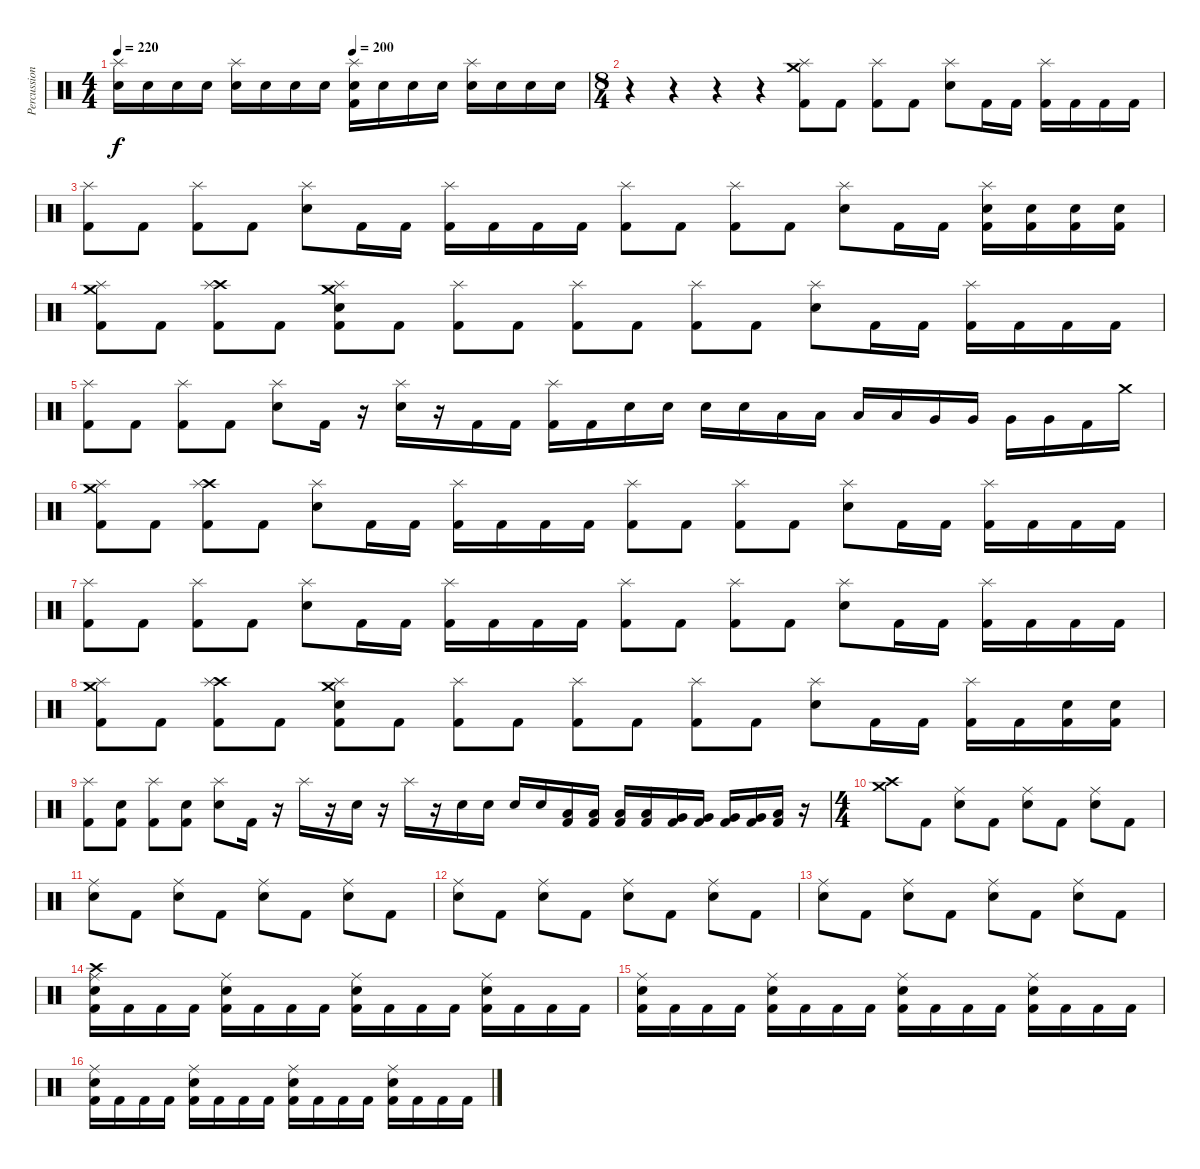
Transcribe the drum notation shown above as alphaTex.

\track ("Percussion" "Percussion") {instrument percussion}
\staff {score}
\articulation defaults
\ts (4 4)
\tempo 220
\tempo (200 0.5)
\clef neutral
\ks c
("Splash (hit)" "Electric Snare (hit)").16{dy f} "Electric Snare (hit)".16 "Electric Snare (hit)".16 "Electric Snare (hit)".16 ("Splash (hit)" "Electric Snare (hit)").16 "Electric Snare (hit)".16 "Electric Snare (hit)".16 "Electric Snare (hit)".16 ("Splash (hit)" "Electric Snare (hit)" "Kick (hit) 2").16 "Electric Snare (hit)".16 "Electric Snare (hit)".16 "Electric Snare (hit)".16 ("Splash (hit)" "Electric Snare (hit)").16 "Electric Snare (hit)".16 "Electric Snare (hit)".16 "Electric Snare (hit)".16 |
\ts (8 4)
r.4 r.4 r.4 r.4 ("Crash medium (hit)" "Splash (hit)" "Kick (hit) 2").8 "Kick (hit) 2".8 ("Splash (hit)" "Kick (hit) 2").8 "Kick (hit) 2".8 ("Splash (hit)" "Electric Snare (hit)").8 "Kick (hit) 2".16 "Kick (hit) 2".16 ("Splash (hit)" "Kick (hit) 2").16 "Kick (hit) 2".16 "Kick (hit) 2".16 "Kick (hit) 2".16 |
("Splash (hit)" "Kick (hit) 2").8 "Kick (hit) 2".8 ("Splash (hit)" "Kick (hit) 2").8 "Kick (hit) 2".8 ("Splash (hit)" "Electric Snare (hit)").8 "Kick (hit) 2".16 "Kick (hit) 2".16 ("Splash (hit)" "Kick (hit) 2").16 "Kick (hit) 2".16 "Kick (hit) 2".16 "Kick (hit) 2".16 ("Splash (hit)" "Kick (hit) 2").8 "Kick (hit) 2".8 ("Splash (hit)" "Kick (hit) 2").8 "Kick (hit) 2".8 ("Splash (hit)" "Electric Snare (hit)").8 "Kick (hit) 2".16 "Kick (hit) 2".16 ("Splash (hit)" "Electric Snare (hit)" "Kick (hit) 2").16 ("Electric Snare (hit)" "Kick (hit) 2").16 ("Electric Snare (hit)" "Kick (hit) 2").16 ("Electric Snare (hit)" "Kick (hit) 2").16 |
("Crash medium (hit)" "Splash (hit)" "Kick (hit) 2").8 "Kick (hit) 2".8 ("Crash high (hit)" "Splash (hit)" "Kick (hit) 2").8 "Kick (hit) 2".8 ("Crash medium (hit)" "Splash (hit)" "Electric Snare (hit)" "Kick (hit) 2").8 "Kick (hit) 2".8 ("Splash (hit)" "Kick (hit) 2").8 "Kick (hit) 2".8 ("Splash (hit)" "Kick (hit) 2").8 "Kick (hit) 2".8 ("Splash (hit)" "Kick (hit) 2").8 "Kick (hit) 2".8 ("Splash (hit)" "Electric Snare (hit)").8 "Kick (hit) 2".16 "Kick (hit) 2".16 ("Splash (hit)" "Kick (hit) 2").16 "Kick (hit) 2".16 "Kick (hit) 2".16 "Kick (hit) 2".16 |
("Splash (hit)" "Kick (hit) 2").8 "Kick (hit) 2".8 ("Splash (hit)" "Kick (hit) 2").8 "Kick (hit) 2".8 ("Splash (hit)" "Electric Snare (hit)").8 "Kick (hit) 2".16 r.16 ("Splash (hit)" "Electric Snare (hit)").16 r.16 "Kick (hit) 2".16 "Kick (hit) 2".16 ("Splash (hit)" "Kick (hit) 2").16 "Kick (hit) 2".16 "Electric Snare (hit)".16 "Electric Snare (hit)".16 "Electric Snare (hit)".16 "Electric Snare (hit)".16 "Low Tom (hit)".16 "Low Tom (hit)".16 "Low Tom (hit)".16 "Low Tom (hit)".16 "Very Low Tom (hit)".16 "Very Low Tom (hit)".16 "Very Low Tom (hit)".16 "Very Low Tom (hit)".16 "Kick (hit) 2".16 "Crash medium (hit)".16 |
("Crash medium (hit)" "Splash (hit)" "Kick (hit) 2").8 "Kick (hit) 2".8 ("Crash high (hit)" "Splash (hit)" "Kick (hit) 2").8 "Kick (hit) 2".8 ("Splash (hit)" "Electric Snare (hit)").8 "Kick (hit) 2".16 "Kick (hit) 2".16 ("Splash (hit)" "Kick (hit) 2").16 "Kick (hit) 2".16 "Kick (hit) 2".16 "Kick (hit) 2".16 ("Splash (hit)" "Kick (hit) 2").8 "Kick (hit) 2".8 ("Splash (hit)" "Kick (hit) 2").8 "Kick (hit) 2".8 ("Splash (hit)" "Electric Snare (hit)").8 "Kick (hit) 2".16 "Kick (hit) 2".16 ("Splash (hit)" "Kick (hit) 2").16 "Kick (hit) 2".16 "Kick (hit) 2".16 "Kick (hit) 2".16 |
("Splash (hit)" "Kick (hit) 2").8 "Kick (hit) 2".8 ("Splash (hit)" "Kick (hit) 2").8 "Kick (hit) 2".8 ("Splash (hit)" "Electric Snare (hit)").8 "Kick (hit) 2".16 "Kick (hit) 2".16 ("Splash (hit)" "Kick (hit) 2").16 "Kick (hit) 2".16 "Kick (hit) 2".16 "Kick (hit) 2".16 ("Splash (hit)" "Kick (hit) 2").8 "Kick (hit) 2".8 ("Splash (hit)" "Kick (hit) 2").8 "Kick (hit) 2".8 ("Splash (hit)" "Electric Snare (hit)").8 "Kick (hit) 2".16 "Kick (hit) 2".16 ("Splash (hit)" "Kick (hit) 2").16 "Kick (hit) 2".16 "Kick (hit) 2".16 "Kick (hit) 2".16 |
("Crash medium (hit)" "Splash (hit)" "Kick (hit) 2").8 "Kick (hit) 2".8 ("Crash high (hit)" "Splash (hit)" "Kick (hit) 2").8 "Kick (hit) 2".8 ("Crash medium (hit)" "Splash (hit)" "Electric Snare (hit)" "Kick (hit) 2").8 "Kick (hit) 2".8 ("Splash (hit)" "Kick (hit) 2").8 "Kick (hit) 2".8 ("Splash (hit)" "Kick (hit) 2").8 "Kick (hit) 2".8 ("Splash (hit)" "Kick (hit) 2").8 "Kick (hit) 2".8 ("Splash (hit)" "Electric Snare (hit)").8 "Kick (hit) 2".16 "Kick (hit) 2".16 ("Splash (hit)" "Kick (hit) 2").16 "Kick (hit) 2".16 ("Electric Snare (hit)" "Kick (hit) 2").16 ("Electric Snare (hit)" "Kick (hit) 2").16 |
("Splash (hit)" "Kick (hit) 2").8 ("Electric Snare (hit)" "Kick (hit) 2").8 ("Splash (hit)" "Kick (hit) 2").8 ("Electric Snare (hit)" "Kick (hit) 2").8 ("Splash (hit)" "Electric Snare (hit)").8 "Kick (hit) 2".16 r.16 "Splash (hit)".16 r.16 "Electric Snare (hit)".16 r.16 "Splash (hit)".16 r.16 "Electric Snare (hit)".16 "Electric Snare (hit)".16 "Electric Snare (hit)".16 "Electric Snare (hit)".16 ("Low Tom (hit)" "Kick (hit) 2").16 ("Low Tom (hit)" "Kick (hit) 2").16 ("Low Tom (hit)" "Kick (hit) 2").16 ("Low Tom (hit)" "Kick (hit) 2").16 ("Very Low Tom (hit)" "Kick (hit) 2").16 ("Very Low Tom (hit)" "Kick (hit) 2").16 ("Very Low Tom (hit)" "Kick (hit) 2").16 ("Very Low Tom (hit)" "Kick (hit) 2").16 ("Low Floor Tom (hit)" "Kick (hit) 2").16 r.16 |
\ts (4 4)
("Crash high (hit)" "Crash medium (hit)").8 "Kick (hit) 2".8 ("Ride (middle)" "Electric Snare (hit)").8 "Kick (hit) 2".8 ("Ride (middle)" "Electric Snare (hit)").8 "Kick (hit) 2".8 ("Ride (middle)" "Electric Snare (hit)").8 "Kick (hit) 2".8 |
("Ride (middle)" "Electric Snare (hit)").8 "Kick (hit) 2".8 ("Ride (middle)" "Electric Snare (hit)").8 "Kick (hit) 2".8 ("Ride (middle)" "Electric Snare (hit)").8 "Kick (hit) 2".8 ("Ride (middle)" "Electric Snare (hit)").8 "Kick (hit) 2".8 |
("Ride (middle)" "Electric Snare (hit)").8 "Kick (hit) 2".8 ("Ride (middle)" "Electric Snare (hit)").8 "Kick (hit) 2".8 ("Ride (middle)" "Electric Snare (hit)").8 "Kick (hit) 2".8 ("Ride (middle)" "Electric Snare (hit)").8 "Kick (hit) 2".8 |
("Ride (middle)" "Electric Snare (hit)").8 "Kick (hit) 2".8 ("Ride (middle)" "Electric Snare (hit)").8 "Kick (hit) 2".8 ("Ride (middle)" "Electric Snare (hit)").8 "Kick (hit) 2".8 ("Ride (middle)" "Electric Snare (hit)").8 "Kick (hit) 2".8 |
("Crash high (hit)" "Ride (middle)" "Electric Snare (hit)" "Kick (hit) 2").16 "Kick (hit) 2".16 "Kick (hit) 2".16 "Kick (hit) 2".16 ("Ride (middle)" "Electric Snare (hit)" "Kick (hit) 2").16 "Kick (hit) 2".16 "Kick (hit) 2".16 "Kick (hit) 2".16 ("Ride (middle)" "Electric Snare (hit)" "Kick (hit) 2").16 "Kick (hit) 2".16 "Kick (hit) 2".16 "Kick (hit) 2".16 ("Ride (middle)" "Electric Snare (hit)" "Kick (hit) 2").16 "Kick (hit) 2".16 "Kick (hit) 2".16 "Kick (hit) 2".16 |
("Ride (middle)" "Electric Snare (hit)" "Kick (hit) 2").16 "Kick (hit) 2".16 "Kick (hit) 2".16 "Kick (hit) 2".16 ("Ride (middle)" "Electric Snare (hit)" "Kick (hit) 2").16 "Kick (hit) 2".16 "Kick (hit) 2".16 "Kick (hit) 2".16 ("Ride (middle)" "Electric Snare (hit)" "Kick (hit) 2").16 "Kick (hit) 2".16 "Kick (hit) 2".16 "Kick (hit) 2".16 ("Ride (middle)" "Electric Snare (hit)" "Kick (hit) 2").16 "Kick (hit) 2".16 "Kick (hit) 2".16 "Kick (hit) 2".16 |
("Ride (middle)" "Electric Snare (hit)" "Kick (hit) 2").16 "Kick (hit) 2".16 "Kick (hit) 2".16 "Kick (hit) 2".16 ("Ride (middle)" "Electric Snare (hit)" "Kick (hit) 2").16 "Kick (hit) 2".16 "Kick (hit) 2".16 "Kick (hit) 2".16 ("Ride (middle)" "Electric Snare (hit)" "Kick (hit) 2").16 "Kick (hit) 2".16 "Kick (hit) 2".16 "Kick (hit) 2".16 ("Ride (middle)" "Electric Snare (hit)" "Kick (hit) 2").16 "Kick (hit) 2".16 "Kick (hit) 2".16 "Kick (hit) 2".16
